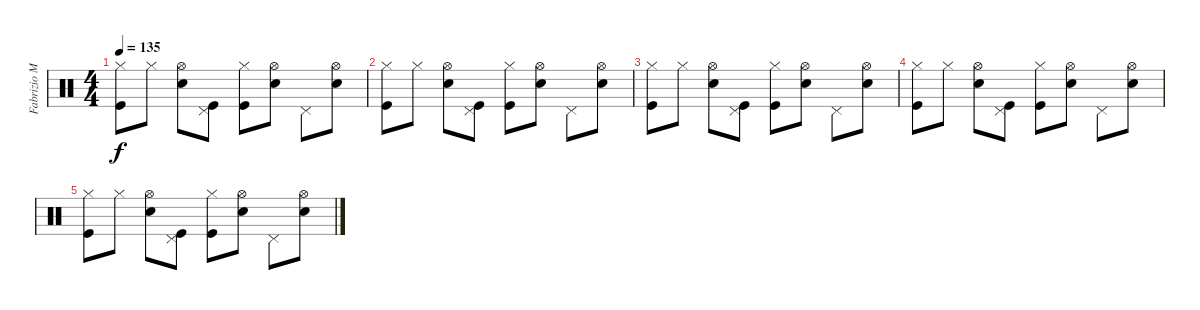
\track ("Fabrizio Moretti" "Fabrizio M") {instrument percussion}
\staff {score}
\articulation defaults
\ts (4 4)
\tempo 135
\clef neutral
\ks c
("Hi-Hat (closed)" "Kick (hit)").8{dy f} "Hi-Hat (closed)".8 ("Hi-Hat (open)" "Electric Snare (hit)").8 ("Pedal Hi-Hat (hit)" "Kick (hit)").8 ("Hi-Hat (closed)" "Kick (hit)").8 ("Hi-Hat (open)" "Electric Snare (hit)").8 "Pedal Hi-Hat (hit)".8 ("Hi-Hat (open)" "Electric Snare (hit)").8 |
("Hi-Hat (closed)" "Kick (hit)").8 "Hi-Hat (closed)".8 ("Hi-Hat (open)" "Electric Snare (hit)").8 ("Pedal Hi-Hat (hit)" "Kick (hit)").8 ("Hi-Hat (closed)" "Kick (hit)").8 ("Hi-Hat (open)" "Electric Snare (hit)").8 "Pedal Hi-Hat (hit)".8 ("Hi-Hat (open)" "Electric Snare (hit)").8 |
("Hi-Hat (closed)" "Kick (hit)").8 "Hi-Hat (closed)".8 ("Hi-Hat (open)" "Electric Snare (hit)").8 ("Pedal Hi-Hat (hit)" "Kick (hit)").8 ("Hi-Hat (closed)" "Kick (hit)").8 ("Hi-Hat (open)" "Electric Snare (hit)").8 "Pedal Hi-Hat (hit)".8 ("Hi-Hat (open)" "Electric Snare (hit)").8 |
("Hi-Hat (closed)" "Kick (hit)").8 "Hi-Hat (closed)".8 ("Hi-Hat (open)" "Electric Snare (hit)").8 ("Pedal Hi-Hat (hit)" "Kick (hit)").8 ("Hi-Hat (closed)" "Kick (hit)").8 ("Hi-Hat (open)" "Electric Snare (hit)").8 "Pedal Hi-Hat (hit)".8 ("Hi-Hat (open)" "Electric Snare (hit)").8 |
("Hi-Hat (closed)" "Kick (hit)").8 "Hi-Hat (closed)".8 ("Hi-Hat (open)" "Electric Snare (hit)").8 ("Pedal Hi-Hat (hit)" "Kick (hit)").8 ("Hi-Hat (closed)" "Kick (hit)").8 ("Hi-Hat (open)" "Electric Snare (hit)").8 "Pedal Hi-Hat (hit)".8 ("Hi-Hat (open)" "Electric Snare (hit)").8
